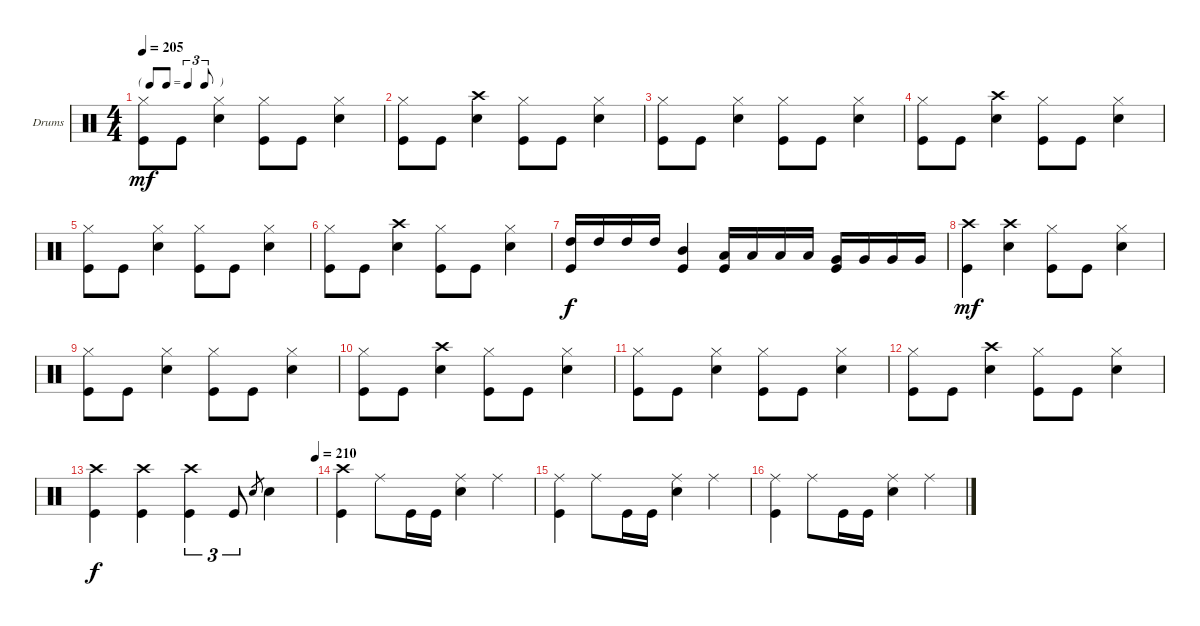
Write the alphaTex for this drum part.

\bracketExtendMode groupsimilarinstruments
\firstSystemTrackNameOrientation horizontal
\otherSystemsTrackNameOrientation horizontal
\track ("Drums" "Drums") {instrument percussion}
\staff {score}
\articulation defaults
\ts (4 4)
\tf triplet8th
\tempo 205
\clef neutral
\ks c
("Kick (hit)" "Hi-Hat (closed)").8{dy mf} "Kick (hit)".8 ("Snare (hit) 2" "Hi-Hat (closed)").4 ("Kick (hit)" "Hi-Hat (closed)").8 "Kick (hit)".8 ("Snare (hit) 2" "Hi-Hat (closed)").4 |
("Kick (hit)" "Hi-Hat (closed)").8 "Kick (hit)".8 ("Crash high (hit)" "Snare (hit) 2").4 ("Kick (hit)" "Hi-Hat (closed)").8 "Kick (hit)".8 ("Snare (hit) 2" "Hi-Hat (closed)").4 |
("Kick (hit)" "Hi-Hat (closed)").8 "Kick (hit)".8 ("Snare (hit) 2" "Hi-Hat (closed)").4 ("Kick (hit)" "Hi-Hat (closed)").8 "Kick (hit)".8 ("Snare (hit) 2" "Hi-Hat (closed)").4 |
("Kick (hit)" "Hi-Hat (closed)").8 "Kick (hit)".8 ("Crash high (hit)" "Snare (hit) 2").4 ("Kick (hit)" "Hi-Hat (closed)").8 "Kick (hit)".8 ("Snare (hit) 2" "Hi-Hat (closed)").4 |
("Kick (hit)" "Hi-Hat (closed)").8 "Kick (hit)".8 ("Snare (hit) 2" "Hi-Hat (closed)").4 ("Kick (hit)" "Hi-Hat (closed)").8 "Kick (hit)".8 ("Snare (hit) 2" "Hi-Hat (closed)").4 |
("Kick (hit)" "Hi-Hat (closed)").8 "Kick (hit)".8 ("Crash high (hit)" "Snare (hit) 2").4 ("Kick (hit)" "Hi-Hat (closed)").8 "Kick (hit)".8 ("Snare (hit) 2" "Hi-Hat (closed)").4 |
("High Tom (hit)" "Kick (hit)").16{dy f} "High Tom (hit)".16 "High Tom (hit)".16 "High Tom (hit)".16 ("Mid Tom (hit)" "Kick (hit)").4 ("Low Tom (hit)" "Kick (hit)").16 "Low Tom (hit)".16 "Low Tom (hit)".16 "Low Tom (hit)".16 ("Very Low Tom (hit)" "Kick (hit)").16 "Very Low Tom (hit)".16 "Very Low Tom (hit)".16 "Very Low Tom (hit)".16 |
("Kick (hit)" "Crash high (hit)").4{dy mf} ("Snare (hit) 2" "Crash high (hit)").4 ("Hi-Hat (closed)" "Kick (hit)").8 "Kick (hit)".8 ("Hi-Hat (closed)" "Snare (hit) 2").4 |
("Kick (hit)" "Hi-Hat (closed)").8 "Kick (hit)".8 ("Snare (hit) 2" "Hi-Hat (closed)").4 ("Kick (hit)" "Hi-Hat (closed)").8 "Kick (hit)".8 ("Snare (hit) 2" "Hi-Hat (closed)").4 |
("Kick (hit)" "Hi-Hat (closed)").8 "Kick (hit)".8 ("Crash high (hit)" "Snare (hit) 2").4 ("Kick (hit)" "Hi-Hat (closed)").8 "Kick (hit)".8 ("Snare (hit) 2" "Hi-Hat (closed)").4 |
("Kick (hit)" "Hi-Hat (closed)").8 "Kick (hit)".8 ("Snare (hit) 2" "Hi-Hat (closed)").4 ("Kick (hit)" "Hi-Hat (closed)").8 "Kick (hit)".8 ("Snare (hit) 2" "Hi-Hat (closed)").4 |
("Kick (hit)" "Hi-Hat (closed)").8 "Kick (hit)".8 ("Crash high (hit)" "Snare (hit) 2").4 ("Kick (hit)" "Hi-Hat (closed)").8 "Kick (hit)".8 ("Snare (hit) 2" "Hi-Hat (closed)").4 |
\tempo (210 1)
("Kick (hit)" "Crash high (hit)").4{dy f} ("Kick (hit)" "Crash high (hit)").4 ("Kick (hit)" "Crash high (hit)").4{tu (3 2)} "Kick (hit)".8{tu (3 2)} "Snare (hit) 2".8{gr} "Snare (hit) 2".4 |
("Kick (hit)" "Crash high (hit)").4 "Ride (middle)".8 "Kick (hit)".16 "Kick (hit)".16 ("Snare (hit) 2" "Ride (middle)").4 "Ride (middle)".4 |
("Kick (hit)" "Ride (middle)").4 "Ride (middle)".8 "Kick (hit)".16 "Kick (hit)".16 ("Snare (hit) 2" "Ride (middle)").4 "Ride (middle)".4 |
("Kick (hit)" "Ride (middle)").4 "Ride (middle)".8 "Kick (hit)".16 "Kick (hit)".16 ("Snare (hit) 2" "Ride (middle)").4 "Ride (middle)".4
